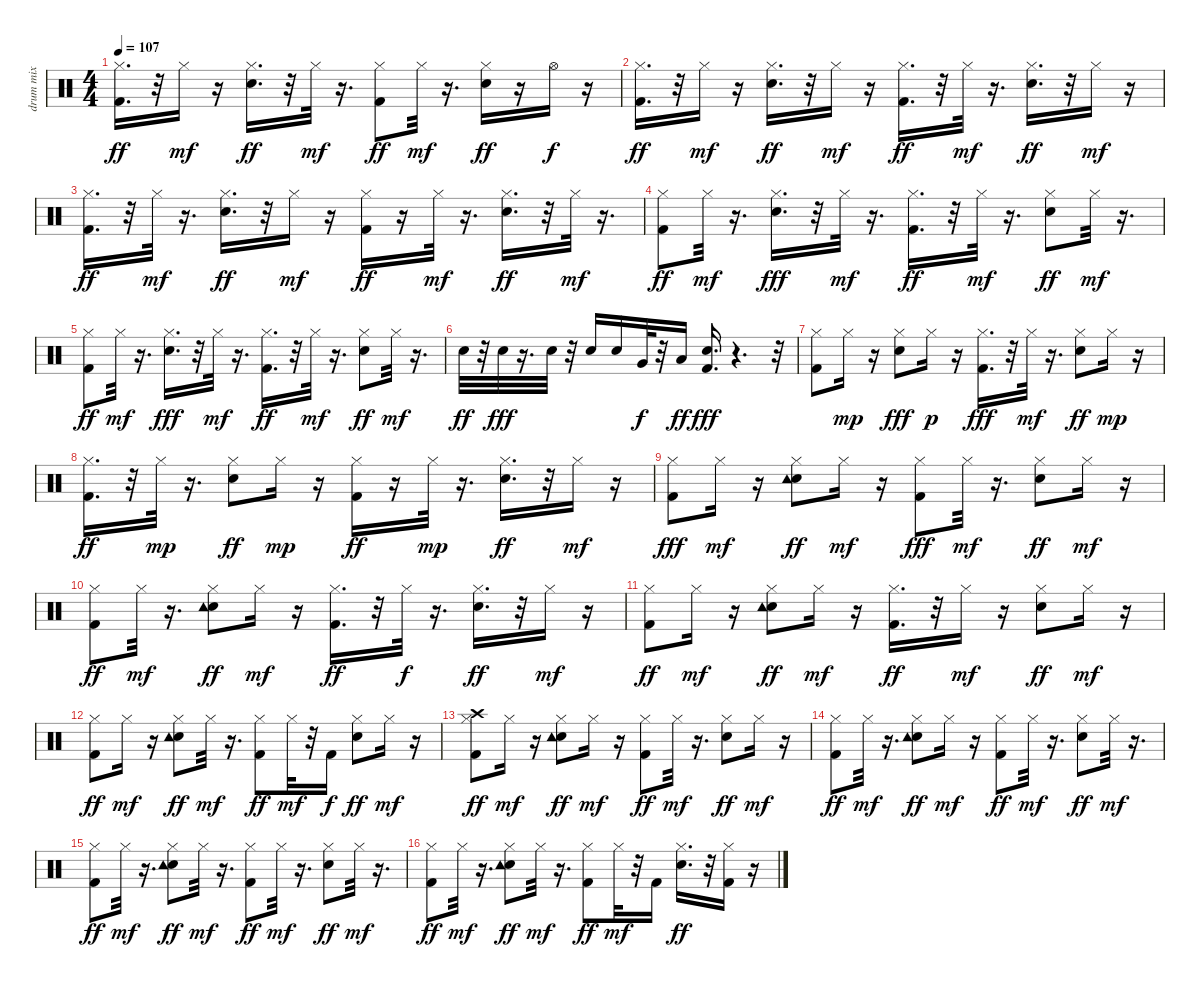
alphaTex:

\track ("drum mix" "drum mix") {instrument percussion}
\staff {score}
\articulation defaults
\ts (4 4)
\tempo 107
\clef neutral
\ks c
("Kick (hit) 2" "Hi-Hat (closed)").16{d dy ff} r.32 "Hi-Hat (closed)".16{dy mf} r.16 ("Electric Snare (hit)" "Hi-Hat (closed)").16{d dy ff} r.32 "Hi-Hat (closed)".32{dy mf} r.16{d} ("Kick (hit) 2" "Hi-Hat (closed)").8{dy ff} "Hi-Hat (closed)".32{dy mf} r.16{d} ("Electric Snare (hit)" "Hi-Hat (closed)").16{dy ff} r.16 "Hi-Hat (open)".16{dy f} r.16 |
("Kick (hit) 2" "Hi-Hat (closed)").16{d dy ff} r.32 "Hi-Hat (closed)".16{dy mf} r.16 ("Electric Snare (hit)" "Hi-Hat (closed)").16{d dy ff} r.32 "Hi-Hat (closed)".16{dy mf} r.16 ("Kick (hit) 2" "Hi-Hat (closed)").16{d dy ff} r.32 "Hi-Hat (closed)".32{dy mf} r.16{d} ("Electric Snare (hit)" "Hi-Hat (closed)").16{d dy ff} r.32 "Hi-Hat (closed)".16{dy mf} r.16 |
("Kick (hit) 2" "Hi-Hat (closed)").16{d dy ff} r.32 "Hi-Hat (closed)".32{dy mf} r.16{d} ("Electric Snare (hit)" "Hi-Hat (closed)").16{d dy ff} r.32 "Hi-Hat (closed)".16{dy mf} r.16 ("Kick (hit) 2" "Hi-Hat (closed)").16{dy ff} r.16 "Hi-Hat (closed)".32{dy mf} r.16{d} ("Electric Snare (hit)" "Hi-Hat (closed)").16{d dy ff} r.32 "Hi-Hat (closed)".32{dy mf} r.16{d} |
("Kick (hit) 2" "Hi-Hat (closed)").8{dy ff} "Hi-Hat (closed)".32{dy mf} r.16{d} ("Electric Snare (hit)" "Hi-Hat (closed)").16{d dy fff} r.32 "Hi-Hat (closed)".32{dy mf} r.16{d} ("Kick (hit) 2" "Hi-Hat (closed)").16{d dy ff} r.32 "Hi-Hat (closed)".32{dy mf} r.16{d} ("Electric Snare (hit)" "Hi-Hat (closed)").8{dy ff} "Hi-Hat (closed)".32{dy mf} r.16{d} |
("Kick (hit) 2" "Hi-Hat (closed)").8{dy ff} "Hi-Hat (closed)".32{dy mf} r.16{d} ("Electric Snare (hit)" "Hi-Hat (closed)").16{d dy fff} r.32 "Hi-Hat (closed)".32{dy mf} r.16{d} ("Kick (hit) 2" "Hi-Hat (closed)").16{d dy ff} r.32 "Hi-Hat (closed)".32{dy mf} r.16{d} ("Electric Snare (hit)" "Hi-Hat (closed)").8{dy ff} "Hi-Hat (closed)".32{dy mf} r.16{d} |
"Electric Snare (hit)".32{dy ff} r.32 "Electric Snare (hit)".32{dy fff} r.16{d} "Electric Snare (hit)".32 r.32 "Electric Snare (hit)".16 "Electric Snare (hit)".16 "Very Low Tom (hit)".32{dy f} r.32 "Low Floor Tom (hit)".16{dy ff} ("Kick (hit) 2" "Electric Snare (hit)").16{d dy fff} r.4{d} r.32 |
("Kick (hit) 2" "Hi-Hat (closed)").8 "Hi-Hat (closed)".16{dy mp} r.16 ("Electric Snare (hit)" "Hi-Hat (closed)").8{dy fff} "Hi-Hat (closed)".16{dy p} r.16 ("Kick (hit) 2" "Hi-Hat (closed)").16{d dy fff} r.32 "Hi-Hat (closed)".32{dy mf} r.16{d} ("Electric Snare (hit)" "Hi-Hat (closed)").8{dy ff} "Hi-Hat (closed)".16{dy mp} r.16 |
("Kick (hit) 2" "Hi-Hat (closed)").16{d dy ff} r.32 "Hi-Hat (closed)".32{dy mp} r.16{d} ("Electric Snare (hit)" "Hi-Hat (closed)").8{dy ff} "Hi-Hat (closed)".16{dy mp} r.16 ("Kick (hit) 2" "Hi-Hat (closed)").16{dy ff} r.16 "Hi-Hat (closed)".32{dy mp} r.16{d} ("Electric Snare (hit)" "Hi-Hat (closed)").16{d dy ff} r.32 "Hi-Hat (closed)".16{dy mf} r.16 |
("Kick (hit) 2" "Hi-Hat (closed)").8{dy fff} "Hi-Hat (closed)".16{dy mf} r.16 ("Electric Snare (hit)" "Hi-Hat (closed)" "Tambourine (hit)").8{dy ff} "Hi-Hat (closed)".16{dy mf} r.16 ("Kick (hit) 2" "Hi-Hat (closed)").8{dy fff} "Hi-Hat (closed)".32{dy mf} r.16{d} ("Electric Snare (hit)" "Hi-Hat (closed)").8{dy ff} "Hi-Hat (closed)".16{dy mf} r.16 |
("Kick (hit) 2" "Hi-Hat (closed)").8{dy ff} "Hi-Hat (closed)".32{dy mf} r.16{d} ("Electric Snare (hit)" "Hi-Hat (closed)" "Tambourine (hit)").8{dy ff} "Hi-Hat (closed)".16{dy mf} r.16 ("Kick (hit) 2" "Hi-Hat (closed)").16{d dy ff} r.32 "Hi-Hat (closed)".32{dy f} r.16{d} ("Electric Snare (hit)" "Hi-Hat (closed)").16{d dy ff} r.32 "Hi-Hat (closed)".16{dy mf} r.16 |
("Kick (hit) 2" "Hi-Hat (closed)").8{dy ff} "Hi-Hat (closed)".16{dy mf} r.16 ("Electric Snare (hit)" "Hi-Hat (closed)" "Tambourine (hit)").8{dy ff} "Hi-Hat (closed)".16{dy mf} r.16 ("Kick (hit) 2" "Hi-Hat (closed)").16{d dy ff} r.32 "Hi-Hat (closed)".16{dy mf} r.16 ("Electric Snare (hit)" "Hi-Hat (closed)").8{dy ff} "Hi-Hat (closed)".16{dy mf} r.16 |
("Kick (hit) 2" "Hi-Hat (closed)").8{dy ff} "Hi-Hat (closed)".16{dy mf} r.16 ("Electric Snare (hit)" "Hi-Hat (closed)" "Tambourine (hit)").8{dy ff} "Hi-Hat (closed)".32{dy mf} r.16{d} ("Kick (hit) 2" "Hi-Hat (closed)").8{dy ff} "Hi-Hat (closed)".32{dy mf} r.32 "Kick (hit) 2".16{dy f} ("Electric Snare (hit)" "Hi-Hat (closed)").8{dy ff} "Hi-Hat (closed)".16{dy mf} r.16 |
("Kick (hit) 2" "Hi-Hat (closed)" "Crash high (hit)").8{dy ff} "Hi-Hat (closed)".16{dy mf} r.16 ("Electric Snare (hit)" "Hi-Hat (closed)" "Tambourine (hit)").8{dy ff} "Hi-Hat (closed)".16{dy mf} r.16 ("Kick (hit) 2" "Hi-Hat (closed)").8{dy ff} "Hi-Hat (closed)".32{dy mf} r.16{d} ("Electric Snare (hit)" "Hi-Hat (closed)").8{dy ff} "Hi-Hat (closed)".16{dy mf} r.16 |
("Kick (hit) 2" "Hi-Hat (closed)").8{dy ff} "Hi-Hat (closed)".32{dy mf} r.16{d} ("Electric Snare (hit)" "Hi-Hat (closed)" "Tambourine (hit)").8{dy ff} "Hi-Hat (closed)".16{dy mf} r.16 ("Kick (hit) 2" "Hi-Hat (closed)").8{dy ff} "Hi-Hat (closed)".32{dy mf} r.16{d} ("Electric Snare (hit)" "Hi-Hat (closed)").8{dy ff} "Hi-Hat (closed)".32{dy mf} r.16{d} |
("Kick (hit) 2" "Hi-Hat (closed)").8{dy ff} "Hi-Hat (closed)".32{dy mf} r.16{d} ("Electric Snare (hit)" "Hi-Hat (closed)" "Tambourine (hit)").8{dy ff} "Hi-Hat (closed)".32{dy mf} r.16{d} ("Kick (hit) 2" "Hi-Hat (closed)").8{dy ff} "Hi-Hat (closed)".32{dy mf} r.16{d} ("Electric Snare (hit)" "Hi-Hat (closed)").8{dy ff} "Hi-Hat (closed)".32{dy mf} r.16{d} |
("Kick (hit) 2" "Hi-Hat (closed)").8{dy ff} "Hi-Hat (closed)".32{dy mf} r.16{d} ("Electric Snare (hit)" "Hi-Hat (closed)" "Tambourine (hit)").8{dy ff} "Hi-Hat (closed)".32{dy mf} r.16{d} ("Kick (hit) 2" "Hi-Hat (closed)").8{dy ff} "Hi-Hat (closed)".32{dy mf} r.32 "Kick (hit) 2".16 ("Electric Snare (hit)" "Hi-Hat (closed)").16{d dy ff} r.32 ("Kick (hit) 2" "Hi-Hat (closed)").16 r.16
